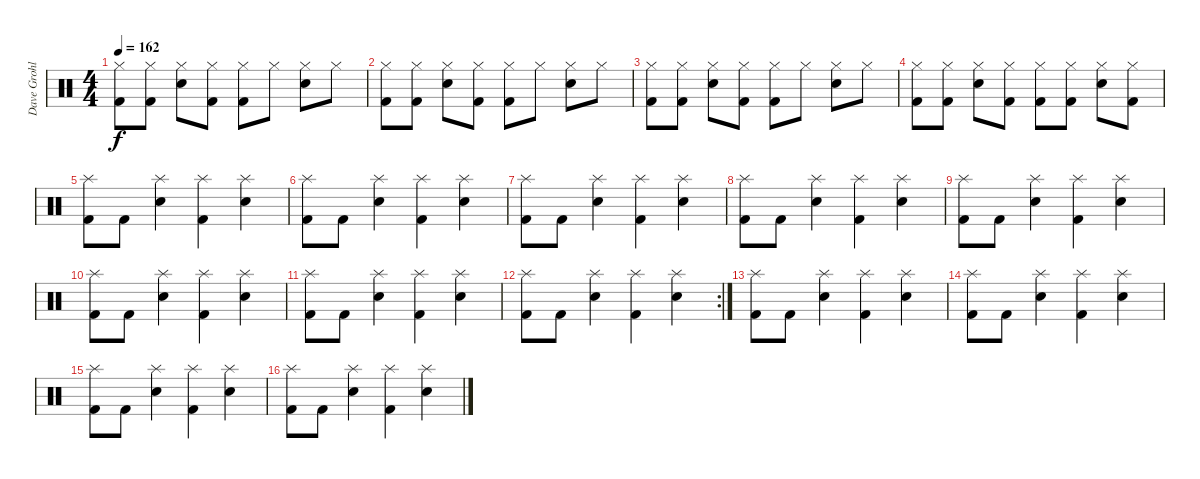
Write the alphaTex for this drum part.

\track ("Dave Grohl : Drums" "Dave Grohl") {instrument percussion}
\staff {score}
\articulation defaults
\ts (4 4)
\tempo 162
\clef neutral
\ks c
("Hi-Hat (closed)" "Kick (hit) 2").8{dy f} ("Hi-Hat (closed)" "Kick (hit) 2").8 ("Hi-Hat (closed)" "Snare (hit) 2").8 ("Hi-Hat (closed)" "Kick (hit) 2").8 ("Hi-Hat (closed)" "Kick (hit) 2").8 "Hi-Hat (closed)".8 ("Hi-Hat (closed)" "Snare (hit) 2").8 "Hi-Hat (closed)".8 |
("Hi-Hat (closed)" "Kick (hit) 2").8 ("Hi-Hat (closed)" "Kick (hit) 2").8 ("Hi-Hat (closed)" "Snare (hit) 2").8 ("Hi-Hat (closed)" "Kick (hit) 2").8 ("Hi-Hat (closed)" "Kick (hit) 2").8 "Hi-Hat (closed)".8 ("Hi-Hat (closed)" "Snare (hit) 2").8 "Hi-Hat (closed)".8 |
("Hi-Hat (closed)" "Kick (hit) 2").8 ("Hi-Hat (closed)" "Kick (hit) 2").8 ("Hi-Hat (closed)" "Snare (hit) 2").8 ("Hi-Hat (closed)" "Kick (hit) 2").8 ("Hi-Hat (closed)" "Kick (hit) 2").8 "Hi-Hat (closed)".8 ("Hi-Hat (closed)" "Snare (hit) 2").8 "Hi-Hat (closed)".8 |
("Hi-Hat (closed)" "Kick (hit) 2").8 ("Hi-Hat (closed)" "Kick (hit) 2").8 ("Hi-Hat (closed)" "Snare (hit) 2").8 ("Hi-Hat (closed)" "Kick (hit) 2").8 ("Hi-Hat (closed)" "Kick (hit) 2").8 ("Hi-Hat (closed)" "Kick (hit) 2").8 ("Hi-Hat (closed)" "Snare (hit) 2").8 ("Hi-Hat (closed)" "Kick (hit) 2").8 |
("Splash (hit)" "Kick (hit) 2").8 "Kick (hit) 2".8 ("Splash (hit)" "Snare (hit) 2").4 ("Splash (hit)" "Kick (hit) 2").4 ("Splash (hit)" "Snare (hit) 2").4 |
("Splash (hit)" "Kick (hit) 2").8 "Kick (hit) 2".8 ("Splash (hit)" "Snare (hit) 2").4 ("Splash (hit)" "Kick (hit) 2").4 ("Splash (hit)" "Snare (hit) 2").4 |
("Splash (hit)" "Kick (hit) 2").8 "Kick (hit) 2".8 ("Splash (hit)" "Snare (hit) 2").4 ("Splash (hit)" "Kick (hit) 2").4 ("Splash (hit)" "Snare (hit) 2").4 |
("Splash (hit)" "Kick (hit) 2").8 "Kick (hit) 2".8 ("Splash (hit)" "Snare (hit) 2").4 ("Splash (hit)" "Kick (hit) 2").4 ("Splash (hit)" "Snare (hit) 2").4 |
("Splash (hit)" "Kick (hit) 2").8 "Kick (hit) 2".8 ("Splash (hit)" "Snare (hit) 2").4 ("Splash (hit)" "Kick (hit) 2").4 ("Splash (hit)" "Snare (hit) 2").4 |
("Splash (hit)" "Kick (hit) 2").8 "Kick (hit) 2".8 ("Splash (hit)" "Snare (hit) 2").4 ("Splash (hit)" "Kick (hit) 2").4 ("Splash (hit)" "Snare (hit) 2").4 |
("Splash (hit)" "Kick (hit) 2").8 "Kick (hit) 2".8 ("Splash (hit)" "Snare (hit) 2").4 ("Splash (hit)" "Kick (hit) 2").4 ("Splash (hit)" "Snare (hit) 2").4 |
\rc 2
("Splash (hit)" "Kick (hit) 2").8 "Kick (hit) 2".8 ("Splash (hit)" "Snare (hit) 2").4 ("Splash (hit)" "Kick (hit) 2").4 ("Splash (hit)" "Snare (hit) 2").4 |
("Splash (hit)" "Kick (hit) 2").8 "Kick (hit) 2".8 ("Splash (hit)" "Snare (hit) 2").4 ("Splash (hit)" "Kick (hit) 2").4 ("Splash (hit)" "Snare (hit) 2").4 |
("Splash (hit)" "Kick (hit) 2").8 "Kick (hit) 2".8 ("Splash (hit)" "Snare (hit) 2").4 ("Splash (hit)" "Kick (hit) 2").4 ("Splash (hit)" "Snare (hit) 2").4 |
("Splash (hit)" "Kick (hit) 2").8 "Kick (hit) 2".8 ("Splash (hit)" "Snare (hit) 2").4 ("Splash (hit)" "Kick (hit) 2").4 ("Splash (hit)" "Snare (hit) 2").4 |
("Splash (hit)" "Kick (hit) 2").8 "Kick (hit) 2".8 ("Splash (hit)" "Snare (hit) 2").4 ("Splash (hit)" "Kick (hit) 2").4 ("Splash (hit)" "Snare (hit) 2").4
